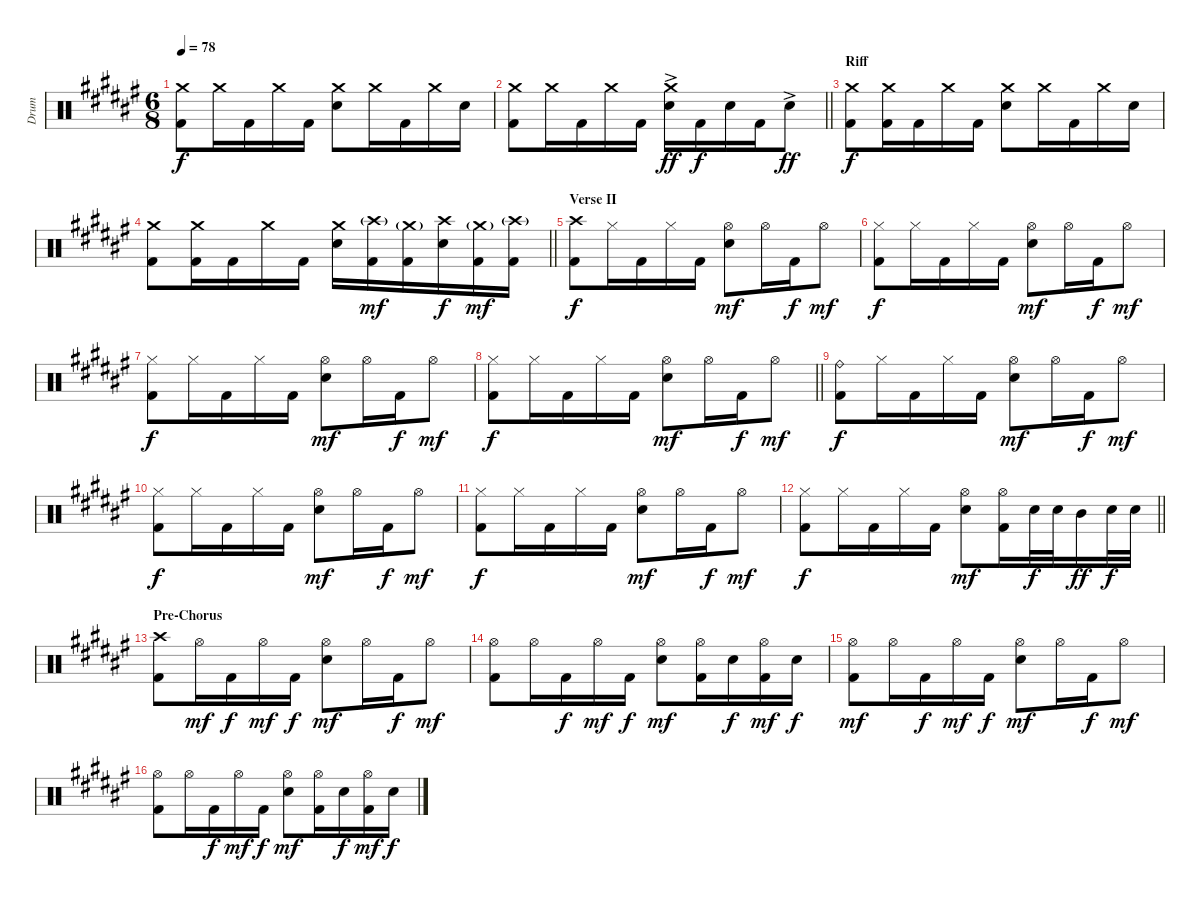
\track ("Drum" "Drum") {instrument percussion}
\staff {score}
\articulation defaults
\ts (6 8)
\tempo 78
\clef neutral
\ks d#minor
("Crash medium (hit)" "Kick (hit) 2").8{dy f} "Crash medium (hit)".16 "Kick (hit) 2".16 "Crash medium (hit)".16 "Kick (hit) 2".16 ("Crash medium (hit)" "Electric Snare (hit)").8 "Crash medium (hit)".16 "Kick (hit) 2".16 "Crash medium (hit)".16 "Electric Snare (hit)".16 |
\barLineRight lightlight
("Crash medium (hit)" "Kick (hit) 2").8 "Crash medium (hit)".16 "Kick (hit) 2".16 "Crash medium (hit)".16 "Kick (hit) 2".16 ("Crash medium (hit)"{ac} "Electric Snare (hit)").16{dy ff} "Kick (hit) 2".16{dy f} "Electric Snare (hit)".16 "Kick (hit) 2".16 "Electric Snare (hit)"{ac}.8{dy ff} |
\section ("" "Riff")
("Crash medium (hit)" "Kick (hit) 2").8{dy f} ("Crash medium (hit)" "Kick (hit) 2").16 "Kick (hit) 2".16 "Crash medium (hit)".16 "Kick (hit) 2".16 ("Crash medium (hit)" "Electric Snare (hit)").8 "Crash medium (hit)".16 "Kick (hit) 2".16 "Crash medium (hit)".16 "Electric Snare (hit)".16 |
\barLineRight lightlight
("Crash medium (hit)" "Kick (hit) 2").8 ("Crash medium (hit)" "Kick (hit) 2").16 "Kick (hit) 2".16 "Crash medium (hit)".16 "Kick (hit) 2".16 ("Crash medium (hit)" "Electric Snare (hit)").16 ("Crash high (hit)"{g} "Kick (hit) 2").16{dy mf} ("Crash medium (hit)"{g} "Kick (hit) 2").16 ("Crash high (hit)" "Electric Snare (hit)").16{dy f} ("Crash medium (hit)"{g} "Kick (hit) 2").16{dy mf} ("Crash high (hit)"{g} "Kick (hit) 2").16 |
\section ("" "Verse II")
("Crash high (hit)" "Kick (hit) 2").8{dy f} "Hi-Hat (closed)".16 "Kick (hit) 2".16 "Hi-Hat (closed)".16 "Kick (hit) 2".16 ("Hi-Hat (open)" "Electric Snare (hit)").8{dy mf} "Hi-Hat (open)".16 "Kick (hit) 2".16{dy f} "Hi-Hat (open)".8{dy mf} |
("Hi-Hat (closed)" "Kick (hit) 2").8{dy f} "Hi-Hat (closed)".16 "Kick (hit) 2".16 "Hi-Hat (closed)".16 "Kick (hit) 2".16 ("Hi-Hat (open)" "Electric Snare (hit)").8{dy mf} "Hi-Hat (open)".16 "Kick (hit) 2".16{dy f} "Hi-Hat (open)".8{dy mf} |
("Hi-Hat (closed)" "Kick (hit) 2").8{dy f} "Hi-Hat (closed)".16 "Kick (hit) 2".16 "Hi-Hat (closed)".16 "Kick (hit) 2".16 ("Hi-Hat (open)" "Electric Snare (hit)").8{dy mf} "Hi-Hat (open)".16 "Kick (hit) 2".16{dy f} "Hi-Hat (open)".8{dy mf} |
\barLineRight lightlight
("Hi-Hat (closed)" "Kick (hit) 2").8{dy f} "Hi-Hat (closed)".16 "Kick (hit) 2".16 "Hi-Hat (closed)".16 "Kick (hit) 2".16 ("Hi-Hat (open)" "Electric Snare (hit)").8{dy mf} "Hi-Hat (open)".16 "Kick (hit) 2".16{dy f} "Hi-Hat (open)".8{dy mf} |
("Ride (bell)" "Kick (hit) 2").8{dy f} "Hi-Hat (closed)".16 "Kick (hit) 2".16 "Hi-Hat (closed)".16 "Kick (hit) 2".16 ("Hi-Hat (open)" "Electric Snare (hit)").8{dy mf} "Hi-Hat (open)".16 "Kick (hit) 2".16{dy f} "Hi-Hat (open)".8{dy mf} |
("Hi-Hat (closed)" "Kick (hit) 2").8{dy f} "Hi-Hat (closed)".16 "Kick (hit) 2".16 "Hi-Hat (closed)".16 "Kick (hit) 2".16 ("Hi-Hat (open)" "Electric Snare (hit)").8{dy mf} "Hi-Hat (open)".16 "Kick (hit) 2".16{dy f} "Hi-Hat (open)".8{dy mf} |
("Hi-Hat (closed)" "Kick (hit) 2").8{dy f} "Hi-Hat (closed)".16 "Kick (hit) 2".16 "Hi-Hat (closed)".16 "Kick (hit) 2".16 ("Hi-Hat (open)" "Electric Snare (hit)").8{dy mf} "Hi-Hat (open)".16 "Kick (hit) 2".16{dy f} "Hi-Hat (open)".8{dy mf} |
\barLineRight lightlight
("Hi-Hat (closed)" "Kick (hit) 2").8{dy f} "Hi-Hat (closed)".16 "Kick (hit) 2".16 "Hi-Hat (closed)".16 "Kick (hit) 2".16 ("Hi-Hat (open)" "Electric Snare (hit)").8{dy mf} ("Hi-Hat (open)" "Kick (hit) 2").16 "Electric Snare (hit)".32{dy f} "Electric Snare (hit)".32 "Mid Tom (hit)".16{dy ff} "Electric Snare (hit)".32{dy f} "Electric Snare (hit)".32 |
\section ("" "Pre-Chorus")
("Crash high (hit)" "Kick (hit) 2").8 "Hi-Hat (open)".16{dy mf} "Kick (hit) 2".16{dy f} "Hi-Hat (open)".16{dy mf} "Kick (hit) 2".16{dy f} ("Hi-Hat (open)" "Electric Snare (hit)").8{dy mf} "Hi-Hat (open)".16 "Kick (hit) 2".16{dy f} "Hi-Hat (open)".8{dy mf} |
("Hi-Hat (open)" "Kick (hit) 2").8 "Hi-Hat (open)".16 "Kick (hit) 2".16{dy f} "Hi-Hat (open)".16{dy mf} "Kick (hit) 2".16{dy f} ("Hi-Hat (open)" "Electric Snare (hit)").8{dy mf} ("Hi-Hat (open)" "Kick (hit) 2").16 "Electric Snare (hit)".16{dy f} ("Hi-Hat (open)" "Kick (hit) 2").16{dy mf} "Electric Snare (hit)".16{dy f} |
("Hi-Hat (open)" "Kick (hit) 2").8{dy mf} "Hi-Hat (open)".16 "Kick (hit) 2".16{dy f} "Hi-Hat (open)".16{dy mf} "Kick (hit) 2".16{dy f} ("Hi-Hat (open)" "Electric Snare (hit)").8{dy mf} "Hi-Hat (open)".16 "Kick (hit) 2".16{dy f} "Hi-Hat (open)".8{dy mf} |
("Hi-Hat (open)" "Kick (hit) 2").8 "Hi-Hat (open)".16 "Kick (hit) 2".16{dy f} "Hi-Hat (open)".16{dy mf} "Kick (hit) 2".16{dy f} ("Hi-Hat (open)" "Electric Snare (hit)").8{dy mf} ("Hi-Hat (open)" "Kick (hit) 2").16 "Electric Snare (hit)".16{dy f} ("Hi-Hat (open)" "Kick (hit) 2").16{dy mf} "Electric Snare (hit)".16{dy f}
